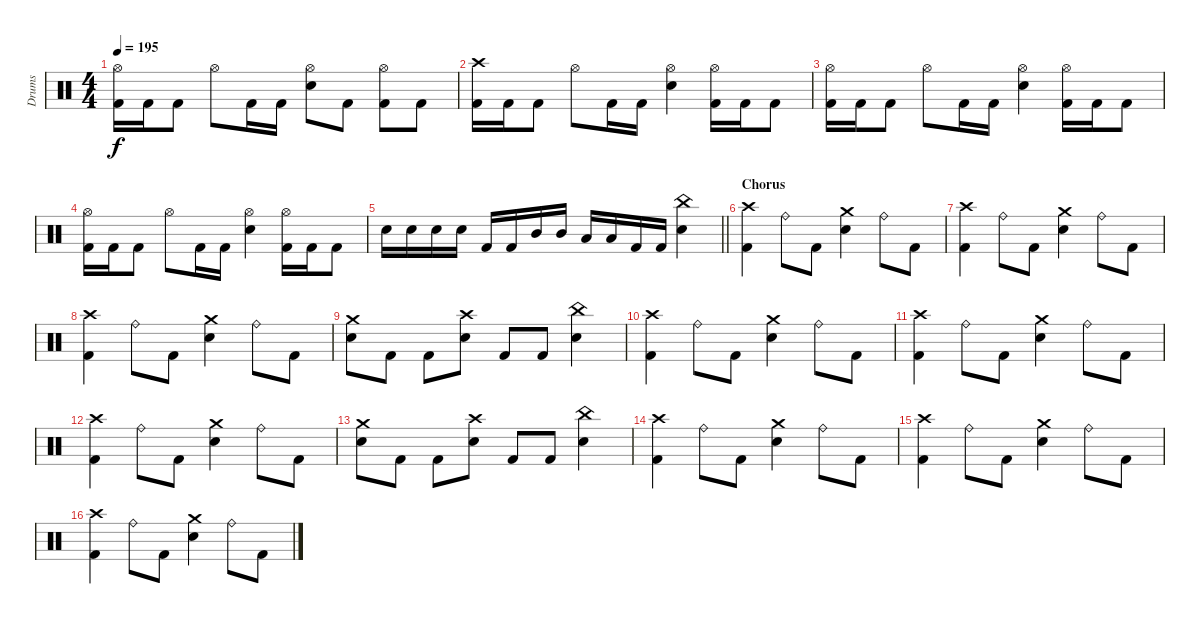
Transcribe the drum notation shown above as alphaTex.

\track ("Drums" "Drums") {instrument percussion}
\staff {score}
\articulation defaults
\ts (4 4)
\tempo 195
\clef neutral
\ks c
("Hi-Hat (open)" "Kick (hit) 2").16{dy f} "Kick (hit) 2".16 "Kick (hit) 2".8 "Hi-Hat (open)".8 "Kick (hit) 2".16 "Kick (hit) 2".16 ("Hi-Hat (open)" "Electric Snare (hit)").8 "Kick (hit) 2".8 ("Hi-Hat (open)" "Kick (hit) 2").8 "Kick (hit) 2".8 |
("Crash high (hit)" "Kick (hit) 2").16 "Kick (hit) 2".16 "Kick (hit) 2".8 "Hi-Hat (open)".8 "Kick (hit) 2".16 "Kick (hit) 2".16 ("Hi-Hat (open)" "Electric Snare (hit)").4 ("Hi-Hat (open)" "Kick (hit) 2").16 "Kick (hit) 2".16 "Kick (hit) 2".8 |
("Hi-Hat (open)" "Kick (hit) 2").16 "Kick (hit) 2".16 "Kick (hit) 2".8 "Hi-Hat (open)".8 "Kick (hit) 2".16 "Kick (hit) 2".16 ("Hi-Hat (open)" "Electric Snare (hit)").4 ("Hi-Hat (open)" "Kick (hit) 2").16 "Kick (hit) 2".16 "Kick (hit) 2".8 |
("Hi-Hat (open)" "Kick (hit) 2").16 "Kick (hit) 2".16 "Kick (hit) 2".8 "Hi-Hat (open)".8 "Kick (hit) 2".16 "Kick (hit) 2".16 ("Hi-Hat (open)" "Electric Snare (hit)").4 ("Hi-Hat (open)" "Kick (hit) 2").16 "Kick (hit) 2".16 "Kick (hit) 2".8 |
\barLineRight lightlight "Electric Snare (hit)".16 "Electric Snare (hit)".16 "Electric Snare (hit)".16 "Electric Snare (hit)".16 "Kick (hit) 2".16 "Kick (hit) 2".16 "Mid Tom (hit)".16 "Mid Tom (hit)".16 "Low Tom (hit)".16 "Low Tom (hit)".16 "Kick (hit) 2".16 "Kick (hit) 2".16
("China (hit)" "Electric Snare (hit)").4 |
\section ("" "Chorus")
("Crash high (hit)" "Kick (hit) 2").4 "Ride (bell)".8 "Kick (hit) 2".8 ("Crash medium (hit)" "Electric Snare (hit)").4 "Ride (bell)".8 "Kick (hit) 2".8 |
("Crash high (hit)" "Kick (hit) 2").4 "Ride (bell)".8 "Kick (hit) 2".8 ("Crash medium (hit)" "Electric Snare (hit)").4 "Ride (bell)".8 "Kick (hit) 2".8 |
("Crash high (hit)" "Kick (hit) 2").4 "Ride (bell)".8 "Kick (hit) 2".8 ("Crash medium (hit)" "Electric Snare (hit)").4 "Ride (bell)".8 "Kick (hit) 2".8 |
("Crash medium (hit)" "Electric Snare (hit)").8 "Kick (hit) 2".8 "Kick (hit) 2".8 ("Crash high (hit)" "Electric Snare (hit)").8 "Kick (hit) 2".8 "Kick (hit) 2".8 ("China (hit)" "Electric Snare (hit)").4 |
("Crash high (hit)" "Kick (hit) 2").4 "Ride (bell)".8 "Kick (hit) 2".8 ("Crash medium (hit)" "Electric Snare (hit)").4 "Ride (bell)".8 "Kick (hit) 2".8 |
("Crash high (hit)" "Kick (hit) 2").4 "Ride (bell)".8 "Kick (hit) 2".8 ("Crash medium (hit)" "Electric Snare (hit)").4 "Ride (bell)".8 "Kick (hit) 2".8 |
("Crash high (hit)" "Kick (hit) 2").4 "Ride (bell)".8 "Kick (hit) 2".8 ("Crash medium (hit)" "Electric Snare (hit)").4 "Ride (bell)".8 "Kick (hit) 2".8 |
("Crash medium (hit)" "Electric Snare (hit)").8 "Kick (hit) 2".8 "Kick (hit) 2".8 ("Crash high (hit)" "Electric Snare (hit)").8 "Kick (hit) 2".8 "Kick (hit) 2".8 ("China (hit)" "Electric Snare (hit)").4 |
("Crash high (hit)" "Kick (hit) 2").4 "Ride (bell)".8 "Kick (hit) 2".8 ("Crash medium (hit)" "Electric Snare (hit)").4 "Ride (bell)".8 "Kick (hit) 2".8 |
("Crash high (hit)" "Kick (hit) 2").4 "Ride (bell)".8 "Kick (hit) 2".8 ("Crash medium (hit)" "Electric Snare (hit)").4 "Ride (bell)".8 "Kick (hit) 2".8 |
("Crash high (hit)" "Kick (hit) 2").4 "Ride (bell)".8 "Kick (hit) 2".8 ("Crash medium (hit)" "Electric Snare (hit)").4 "Ride (bell)".8 "Kick (hit) 2".8
